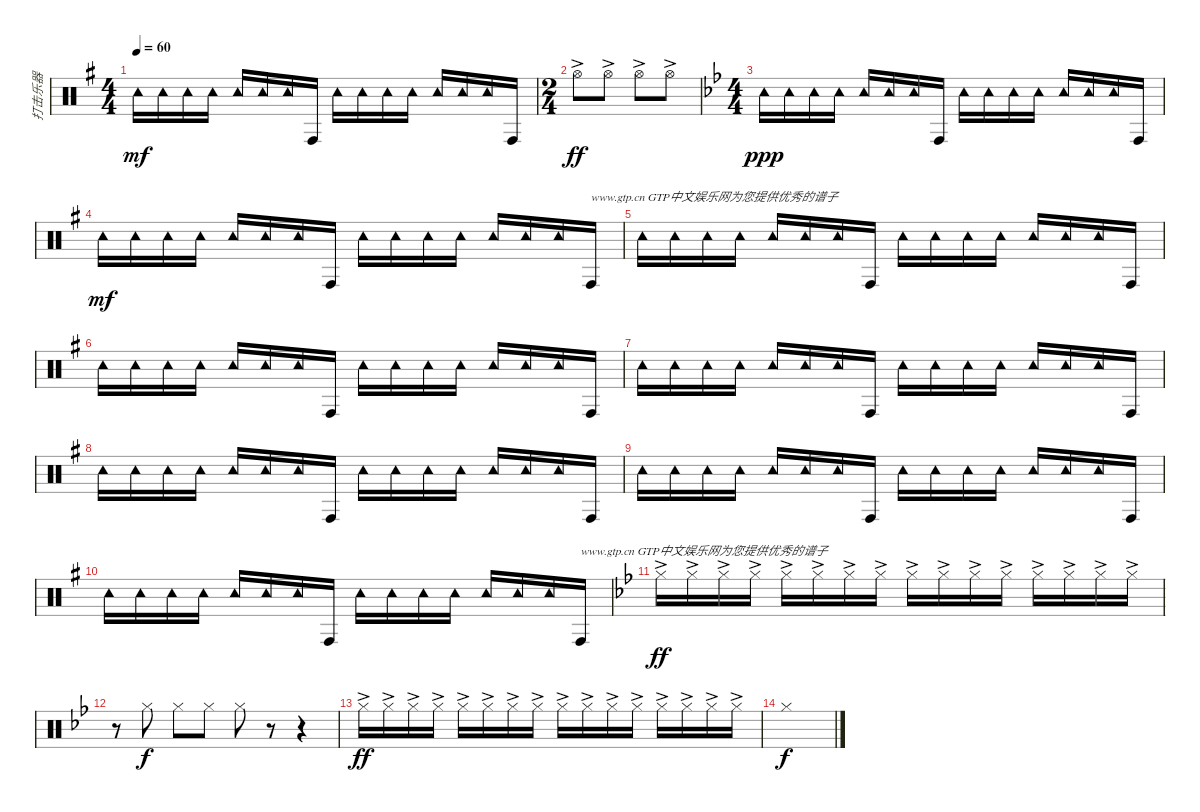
\track ("打击乐器" "打击乐器") {instrument percussion bank 3}
\staff {score}
\articulation defaults
\ts (4 4)
\tempo 60
\clef neutral
\ks g "Tambourine (hit)".16{dy mf} "Tambourine (hit)".16 "Tambourine (hit)".16 "Tambourine (hit)".16 "Tambourine (hit)".16 "Tambourine (hit)".16 "Tambourine (hit)".16 "Conga high (hit)".16 "Tambourine (hit)".16 "Tambourine (hit)".16 "Tambourine (hit)".16 "Tambourine (hit)".16 "Tambourine (hit)".16 "Tambourine (hit)".16 "Tambourine (hit)".16 "Conga high (hit)".16
|
\ts (2 4)
"Hi-Hat (open)"{ac}.8{dy ff} "Hi-Hat (open)"{ac}.8 "Hi-Hat (open)"{ac}.8 "Hi-Hat (open)"{ac}.8 |
\ts (4 4)
\ks bb "Tambourine (hit)".16{dy ppp} "Tambourine (hit)".16 "Tambourine (hit)".16 "Tambourine (hit)".16 "Tambourine (hit)".16 "Tambourine (hit)".16 "Tambourine (hit)".16 "Conga high (hit)".16 "Tambourine (hit)".16 "Tambourine (hit)".16 "Tambourine (hit)".16 "Tambourine (hit)".16 "Tambourine (hit)".16 "Tambourine (hit)".16 "Tambourine (hit)".16 "Conga high (hit)".16
|
\ks g "Tambourine (hit)".16{dy mf} "Tambourine (hit)".16 "Tambourine (hit)".16 "Tambourine (hit)".16 "Tambourine (hit)".16 "Tambourine (hit)".16 "Tambourine (hit)".16 "Conga high (hit)".16 "Tambourine (hit)".16 "Tambourine (hit)".16 "Tambourine (hit)".16 "Tambourine (hit)".16 "Tambourine (hit)".16 "Tambourine (hit)".16 "Tambourine (hit)".16 "Conga high (hit)".16{txt "www.gtp.cn GTP中文娱乐网为您提供优秀的谱子"}
|
"Tambourine (hit)".16 "Tambourine (hit)".16 "Tambourine (hit)".16 "Tambourine (hit)".16 "Tambourine (hit)".16 "Tambourine (hit)".16 "Tambourine (hit)".16 "Conga high (hit)".16 "Tambourine (hit)".16 "Tambourine (hit)".16 "Tambourine (hit)".16 "Tambourine (hit)".16 "Tambourine (hit)".16 "Tambourine (hit)".16 "Tambourine (hit)".16 "Conga high (hit)".16 |
"Tambourine (hit)".16 "Tambourine (hit)".16 "Tambourine (hit)".16 "Tambourine (hit)".16 "Tambourine (hit)".16 "Tambourine (hit)".16 "Tambourine (hit)".16 "Conga high (hit)".16 "Tambourine (hit)".16 "Tambourine (hit)".16 "Tambourine (hit)".16 "Tambourine (hit)".16 "Tambourine (hit)".16 "Tambourine (hit)".16 "Tambourine (hit)".16 "Conga high (hit)".16 |
"Tambourine (hit)".16 "Tambourine (hit)".16 "Tambourine (hit)".16 "Tambourine (hit)".16 "Tambourine (hit)".16 "Tambourine (hit)".16 "Tambourine (hit)".16 "Conga high (hit)".16 "Tambourine (hit)".16 "Tambourine (hit)".16 "Tambourine (hit)".16 "Tambourine (hit)".16 "Tambourine (hit)".16 "Tambourine (hit)".16 "Tambourine (hit)".16 "Conga high (hit)".16 |
"Tambourine (hit)".16 "Tambourine (hit)".16 "Tambourine (hit)".16 "Tambourine (hit)".16 "Tambourine (hit)".16 "Tambourine (hit)".16 "Tambourine (hit)".16 "Conga high (hit)".16 "Tambourine (hit)".16 "Tambourine (hit)".16 "Tambourine (hit)".16 "Tambourine (hit)".16 "Tambourine (hit)".16 "Tambourine (hit)".16 "Tambourine (hit)".16 "Conga high (hit)".16 |
"Tambourine (hit)".16 "Tambourine (hit)".16 "Tambourine (hit)".16 "Tambourine (hit)".16 "Tambourine (hit)".16 "Tambourine (hit)".16 "Tambourine (hit)".16 "Conga high (hit)".16 "Tambourine (hit)".16 "Tambourine (hit)".16 "Tambourine (hit)".16 "Tambourine (hit)".16 "Tambourine (hit)".16 "Tambourine (hit)".16 "Tambourine (hit)".16 "Conga high (hit)".16 |
"Tambourine (hit)".16 "Tambourine (hit)".16 "Tambourine (hit)".16 "Tambourine (hit)".16 "Tambourine (hit)".16 "Tambourine (hit)".16 "Tambourine (hit)".16 "Conga high (hit)".16 "Tambourine (hit)".16 "Tambourine (hit)".16 "Tambourine (hit)".16 "Tambourine (hit)".16 "Tambourine (hit)".16 "Tambourine (hit)".16 "Tambourine (hit)".16 "Conga high (hit)".16{txt "www.gtp.cn GTP中文娱乐网为您提供优秀的谱子"} |
\ks bb "Hi-Hat (closed)"{ac}.16{dy ff} "Hi-Hat (closed)"{ac}.16 "Hi-Hat (closed)"{ac}.16 "Hi-Hat (closed)"{ac}.16 "Hi-Hat (closed)"{ac}.16 "Hi-Hat (closed)"{ac}.16 "Hi-Hat (closed)"{ac}.16 "Hi-Hat (closed)"{ac}.16 "Hi-Hat (closed)"{ac}.16 "Hi-Hat (closed)"{ac}.16 "Hi-Hat (closed)"{ac}.16 "Hi-Hat (closed)"{ac}.16 "Hi-Hat (closed)"{ac}.16 "Hi-Hat (closed)"{ac}.16 "Hi-Hat (closed)"{ac}.16 "Hi-Hat (closed)"{ac}.16
|
r.8 "Hi-Hat (closed)".8{dy f} "Hi-Hat (closed)".8 "Hi-Hat (closed)".8 "Hi-Hat (closed)".8 r.8 r.4 |
"Hi-Hat (closed)"{ac}.16{dy ff} "Hi-Hat (closed)"{ac}.16 "Hi-Hat (closed)"{ac}.16 "Hi-Hat (closed)"{ac}.16 "Hi-Hat (closed)"{ac}.16 "Hi-Hat (closed)"{ac}.16 "Hi-Hat (closed)"{ac}.16 "Hi-Hat (closed)"{ac}.16 "Hi-Hat (closed)"{ac}.16 "Hi-Hat (closed)"{ac}.16 "Hi-Hat (closed)"{ac}.16 "Hi-Hat (closed)"{ac}.16 "Hi-Hat (closed)"{ac}.16 "Hi-Hat (closed)"{ac}.16 "Hi-Hat (closed)"{ac}.16 "Hi-Hat (closed)"{ac}.16 |
"Hi-Hat (closed)".1{dy f}
